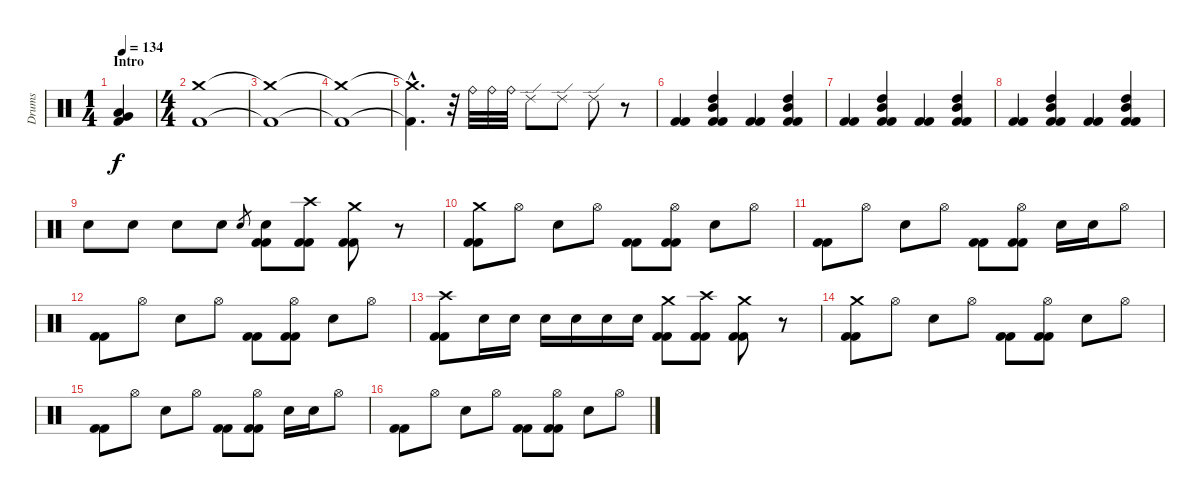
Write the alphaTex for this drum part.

\track ("Drums" "Drums") {instrument percussion}
\staff {score}
\articulation defaults
\ts (1 4)
\section ("" "Intro")
\tempo 134
\clef neutral
\ks c
("Low Tom (hit)" "Very Low Tom (hit)" "Kick (hit) 2").4{dy f} |
\ts (4 4)
("Crash medium (hit)" "Kick (hit) 2").1 |
("Crash medium (hit)"{t} "Kick (hit) 2"{t}).1 |
("Crash medium (hit)"{t} "Kick (hit) 2"{t}).1 |
("Crash medium (hit)"{hac t} "Kick (hit) 2"{hac t}).4{d} r.32 "Ride (bell)".32 "Ride (bell)".32 "Ride (bell)".32 "Ride (edge) 2".8 "Ride (edge) 2".8 "Ride (edge) 2".8 r.8 |
("Kick (hit) 2" "Kick (hit) 2").4 ("High Tom (hit)" "Mid Tom (hit)" "Kick (hit) 2" "Kick (hit) 2").4 ("Kick (hit) 2" "Kick (hit) 2").4 ("High Tom (hit)" "Mid Tom (hit)" "Kick (hit) 2" "Kick (hit) 2").4 |
("Kick (hit) 2" "Kick (hit) 2").4 ("High Tom (hit)" "Mid Tom (hit)" "Kick (hit) 2" "Kick (hit) 2").4 ("Kick (hit) 2" "Kick (hit) 2").4 ("High Tom (hit)" "Mid Tom (hit)" "Kick (hit) 2" "Kick (hit) 2").4 |
("Kick (hit) 2" "Kick (hit) 2").4 ("High Tom (hit)" "Mid Tom (hit)" "Kick (hit) 2" "Kick (hit) 2").4 ("Kick (hit) 2" "Kick (hit) 2").4 ("High Tom (hit)" "Mid Tom (hit)" "Kick (hit) 2" "Kick (hit) 2").4 |
"Electric Snare (hit)".8 "Electric Snare (hit)".8 "Electric Snare (hit)".8 "Electric Snare (hit)".8 "Electric Snare (hit)".8{gr} ("Electric Snare (hit)" "Kick (hit) 2" "Kick (hit) 2").8 ("Crash high (hit)" "Kick (hit) 2" "Kick (hit) 2").8 ("Crash medium (hit)" "Kick (hit) 2" "Kick (hit) 2").8 r.8 |
("Crash medium (hit)" "Kick (hit) 2" "Kick (hit) 2").8 "Hi-Hat (open)".8 "Electric Snare (hit)".8 "Hi-Hat (open)".8 ("Kick (hit) 2" "Kick (hit) 2").8 ("Hi-Hat (open)" "Kick (hit) 2" "Kick (hit) 2").8 "Electric Snare (hit)".8 "Hi-Hat (open)".8 |
("Kick (hit) 2" "Kick (hit) 2").8 "Hi-Hat (open)".8 "Electric Snare (hit)".8 "Hi-Hat (open)".8 ("Kick (hit) 2" "Kick (hit) 2").8 ("Hi-Hat (open)" "Kick (hit) 2" "Kick (hit) 2").8 "Electric Snare (hit)".16 "Electric Snare (hit)".16 "Hi-Hat (open)".8 |
("Kick (hit) 2" "Kick (hit) 2").8 "Hi-Hat (open)".8 "Electric Snare (hit)".8 "Hi-Hat (open)".8 ("Kick (hit) 2" "Kick (hit) 2").8 ("Hi-Hat (open)" "Kick (hit) 2" "Kick (hit) 2").8 "Electric Snare (hit)".8 "Hi-Hat (open)".8 |
("Crash high (hit)" "Kick (hit) 2" "Kick (hit) 2").8 "Electric Snare (hit)".16 "Electric Snare (hit)".16 "Electric Snare (hit)".16 "Electric Snare (hit)".16 "Electric Snare (hit)".16 "Electric Snare (hit)".16 ("Crash medium (hit)" "Kick (hit) 2" "Kick (hit) 2").8 ("Crash high (hit)" "Kick (hit) 2" "Kick (hit) 2").8 ("Crash medium (hit)" "Kick (hit) 2" "Kick (hit) 2").8 r.8 |
("Crash medium (hit)" "Kick (hit) 2" "Kick (hit) 2").8 "Hi-Hat (open)".8 "Electric Snare (hit)".8 "Hi-Hat (open)".8 ("Kick (hit) 2" "Kick (hit) 2").8 ("Hi-Hat (open)" "Kick (hit) 2" "Kick (hit) 2").8 "Electric Snare (hit)".8 "Hi-Hat (open)".8 |
("Kick (hit) 2" "Kick (hit) 2").8 "Hi-Hat (open)".8 "Electric Snare (hit)".8 "Hi-Hat (open)".8 ("Kick (hit) 2" "Kick (hit) 2").8 ("Hi-Hat (open)" "Kick (hit) 2" "Kick (hit) 2").8 "Electric Snare (hit)".16 "Electric Snare (hit)".16 "Hi-Hat (open)".8 |
("Kick (hit) 2" "Kick (hit) 2").8 "Hi-Hat (open)".8 "Electric Snare (hit)".8 "Hi-Hat (open)".8 ("Kick (hit) 2" "Kick (hit) 2").8 ("Hi-Hat (open)" "Kick (hit) 2" "Kick (hit) 2").8 "Electric Snare (hit)".8 "Hi-Hat (open)".8
